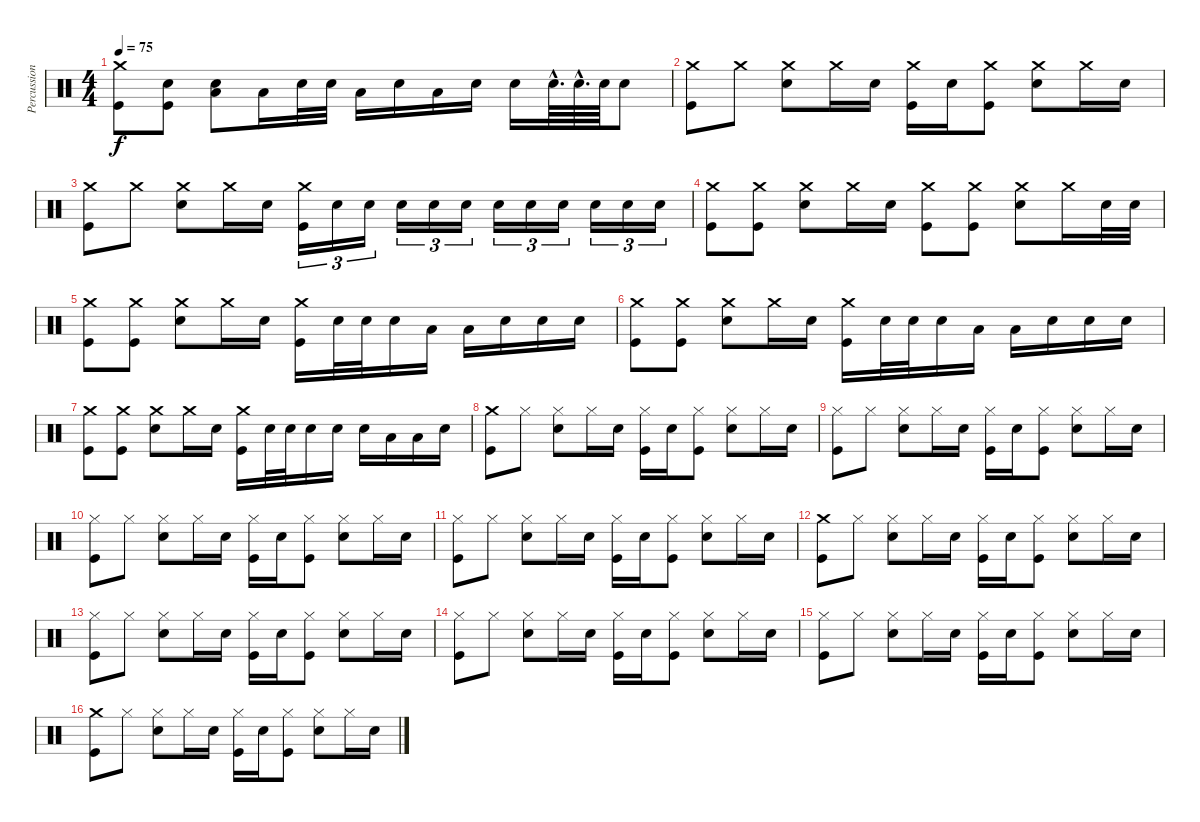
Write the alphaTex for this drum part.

\track ("Percussion" "Percussion") {instrument percussion}
\staff {score}
\articulation defaults
\ts (4 4)
\tempo 75
\clef neutral
\ks c
("Crash medium (hit)" "Kick (hit)").8{dy f} ("Snare (hit) 2" "Kick (hit)").8 ("Low Tom (hit)" "Snare (hit) 2").8 "Low Tom (hit)".16 "Snare (hit) 2".32 "Snare (hit) 2".32 "Low Tom (hit)".16 "Snare (hit) 2".16 "Low Tom (hit)".16 "Snare (hit) 2".16 "Snare (hit) 2".16 "Snare (hit) 2"{hac}.64{d} "Snare (hit) 2"{hac}.64{d} "Snare (hit) 2".64 "Snare (hit) 2".8 |
("Crash medium (hit)" "Kick (hit)").8 "Crash medium (hit)".8 ("Crash medium (hit)" "Snare (hit) 2").8 "Crash medium (hit)".16 "Snare (hit) 2".16 ("Crash medium (hit)" "Kick (hit)").16 "Snare (hit) 2".16 ("Crash medium (hit)" "Kick (hit)").8 ("Crash medium (hit)" "Snare (hit) 2").8 "Crash medium (hit)".16 "Snare (hit) 2".16 |
("Crash medium (hit)" "Kick (hit)").8 "Crash medium (hit)".8 ("Crash medium (hit)" "Snare (hit) 2").8 "Crash medium (hit)".16 "Snare (hit) 2".16 ("Crash medium (hit)" "Kick (hit)").16{tu (3 2)} "Snare (hit) 2".16{tu (3 2)} "Snare (hit) 2".16{tu (3 2)} "Snare (hit) 2".16{tu (3 2)} "Snare (hit) 2".16{tu (3 2)} "Snare (hit) 2".16{tu (3 2)} "Snare (hit) 2".16{tu (3 2)} "Snare (hit) 2".16{tu (3 2)} "Snare (hit) 2".16{tu (3 2)} "Snare (hit) 2".16{tu (3 2)} "Snare (hit) 2".16{tu (3 2)} "Snare (hit) 2".16{tu (3 2)} |
("Crash medium (hit)" "Kick (hit)").8 ("Crash medium (hit)" "Kick (hit)").8 ("Crash medium (hit)" "Snare (hit) 2").8 "Crash medium (hit)".16 "Snare (hit) 2".16 ("Crash medium (hit)" "Kick (hit)").8 ("Crash medium (hit)" "Kick (hit)").8 ("Crash medium (hit)" "Snare (hit) 2").8 "Crash medium (hit)".16 "Snare (hit) 2".32 "Snare (hit) 2".32 |
("Crash medium (hit)" "Kick (hit)").8 ("Crash medium (hit)" "Kick (hit)").8 ("Crash medium (hit)" "Snare (hit) 2").8 "Crash medium (hit)".16 "Snare (hit) 2".16 ("Crash medium (hit)" "Kick (hit)").16 "Snare (hit) 2".32 "Snare (hit) 2".32 "Snare (hit) 2".16 "Low Tom (hit)".16 "Low Tom (hit)".16 "Snare (hit) 2".16 "Snare (hit) 2".16 "Snare (hit) 2".16 |
("Crash medium (hit)" "Kick (hit)").8 ("Crash medium (hit)" "Kick (hit)").8 ("Crash medium (hit)" "Snare (hit) 2").8 "Crash medium (hit)".16 "Snare (hit) 2".16 ("Crash medium (hit)" "Kick (hit)").16 "Snare (hit) 2".32 "Snare (hit) 2".32 "Snare (hit) 2".16 "Low Tom (hit)".16 "Low Tom (hit)".16 "Snare (hit) 2".16 "Snare (hit) 2".16 "Snare (hit) 2".16 |
("Crash medium (hit)" "Kick (hit)").8 ("Crash medium (hit)" "Kick (hit)").8 ("Crash medium (hit)" "Snare (hit) 2").8 "Crash medium (hit)".16 "Snare (hit) 2".16 ("Crash medium (hit)" "Kick (hit)").16 "Snare (hit) 2".32 "Snare (hit) 2".32 "Snare (hit) 2".16 "Snare (hit) 2".16 "Snare (hit) 2".16 "Low Tom (hit)".16 "Low Tom (hit)".16 "Snare (hit) 2".16 |
("Crash medium (hit)" "Kick (hit)").8 "Hi-Hat (closed)".8 ("Hi-Hat (closed)" "Snare (hit) 2").8 "Hi-Hat (closed)".16 "Snare (hit) 2".16 ("Hi-Hat (closed)" "Kick (hit)").16 "Snare (hit) 2".16 ("Hi-Hat (closed)" "Kick (hit)").8 ("Hi-Hat (closed)" "Snare (hit) 2").8 "Hi-Hat (closed)".16 "Snare (hit) 2".16 |
("Hi-Hat (closed)" "Kick (hit)").8 "Hi-Hat (closed)".8 ("Hi-Hat (closed)" "Snare (hit) 2").8 "Hi-Hat (closed)".16 "Snare (hit) 2".16 ("Hi-Hat (closed)" "Kick (hit)").16 "Snare (hit) 2".16 ("Hi-Hat (closed)" "Kick (hit)").8 ("Hi-Hat (closed)" "Snare (hit) 2").8 "Hi-Hat (closed)".16 "Snare (hit) 2".16 |
("Hi-Hat (closed)" "Kick (hit)").8 "Hi-Hat (closed)".8 ("Hi-Hat (closed)" "Snare (hit) 2").8 "Hi-Hat (closed)".16 "Snare (hit) 2".16 ("Hi-Hat (closed)" "Kick (hit)").16 "Snare (hit) 2".16 ("Hi-Hat (closed)" "Kick (hit)").8 ("Hi-Hat (closed)" "Snare (hit) 2").8 "Hi-Hat (closed)".16 "Snare (hit) 2".16 |
("Hi-Hat (closed)" "Kick (hit)").8 "Hi-Hat (closed)".8 ("Hi-Hat (closed)" "Snare (hit) 2").8 "Hi-Hat (closed)".16 "Snare (hit) 2".16 ("Hi-Hat (closed)" "Kick (hit)").16 "Snare (hit) 2".16 ("Hi-Hat (closed)" "Kick (hit)").8 ("Hi-Hat (closed)" "Snare (hit) 2").8 "Hi-Hat (closed)".16 "Snare (hit) 2".16 |
("Crash medium (hit)" "Kick (hit)").8 "Hi-Hat (closed)".8 ("Hi-Hat (closed)" "Snare (hit) 2").8 "Hi-Hat (closed)".16 "Snare (hit) 2".16 ("Hi-Hat (closed)" "Kick (hit)").16 "Snare (hit) 2".16 ("Hi-Hat (closed)" "Kick (hit)").8 ("Hi-Hat (closed)" "Snare (hit) 2").8 "Hi-Hat (closed)".16 "Snare (hit) 2".16 |
("Hi-Hat (closed)" "Kick (hit)").8 "Hi-Hat (closed)".8 ("Hi-Hat (closed)" "Snare (hit) 2").8 "Hi-Hat (closed)".16 "Snare (hit) 2".16 ("Hi-Hat (closed)" "Kick (hit)").16 "Snare (hit) 2".16 ("Hi-Hat (closed)" "Kick (hit)").8 ("Hi-Hat (closed)" "Snare (hit) 2").8 "Hi-Hat (closed)".16 "Snare (hit) 2".16 |
("Hi-Hat (closed)" "Kick (hit)").8 "Hi-Hat (closed)".8 ("Hi-Hat (closed)" "Snare (hit) 2").8 "Hi-Hat (closed)".16 "Snare (hit) 2".16 ("Hi-Hat (closed)" "Kick (hit)").16 "Snare (hit) 2".16 ("Hi-Hat (closed)" "Kick (hit)").8 ("Hi-Hat (closed)" "Snare (hit) 2").8 "Hi-Hat (closed)".16 "Snare (hit) 2".16 |
("Hi-Hat (closed)" "Kick (hit)").8 "Hi-Hat (closed)".8 ("Hi-Hat (closed)" "Snare (hit) 2").8 "Hi-Hat (closed)".16 "Snare (hit) 2".16 ("Hi-Hat (closed)" "Kick (hit)").16 "Snare (hit) 2".16 ("Hi-Hat (closed)" "Kick (hit)").8 ("Hi-Hat (closed)" "Snare (hit) 2").8 "Hi-Hat (closed)".16 "Snare (hit) 2".16 |
("Crash medium (hit)" "Kick (hit)").8 "Hi-Hat (closed)".8 ("Hi-Hat (closed)" "Snare (hit) 2").8 "Hi-Hat (closed)".16 "Snare (hit) 2".16 ("Hi-Hat (closed)" "Kick (hit)").16 "Snare (hit) 2".16 ("Hi-Hat (closed)" "Kick (hit)").8 ("Hi-Hat (closed)" "Snare (hit) 2").8 "Hi-Hat (closed)".16 "Snare (hit) 2".16
